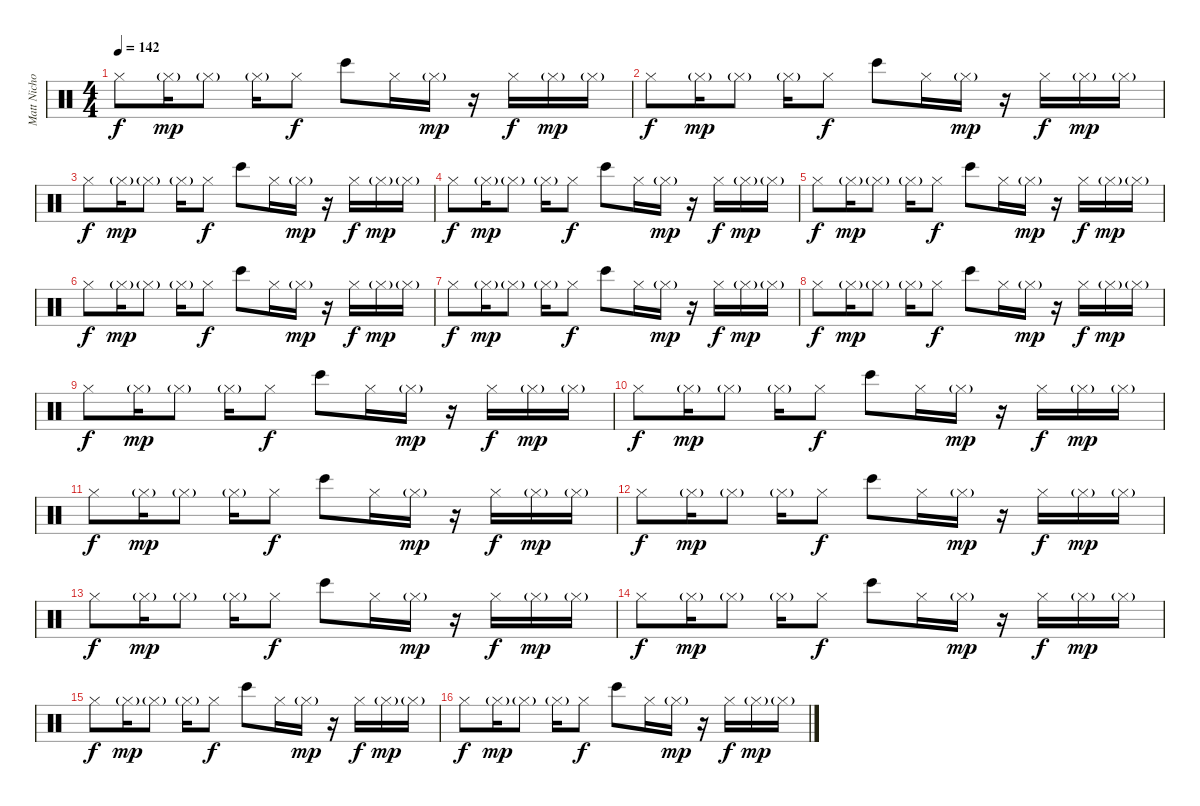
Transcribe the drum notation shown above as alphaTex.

\track ("Matt Nicholls" "Matt Nicho") {instrument percussion}
\staff {score}
\articulation defaults
\ts (4 4)
\tempo 142
\clef neutral
\ks c "Hi-Hat (closed)".8{dy f} "Hi-Hat (closed)"{g}.16{dy mp} "Hi-Hat (closed)"{g}.8 "Hi-Hat (closed)"{g}.16 "Hi-Hat (closed)".8{dy f} "Bongo High (hit)".8 "Hi-Hat (closed)".16 "Hi-Hat (closed)"{g}.16{dy mp}
r.16 "Hi-Hat (closed)".16{dy f} "Hi-Hat (closed)"{g}.16{dy mp} "Hi-Hat (closed)"{g}.16 |
"Hi-Hat (closed)".8{dy f} "Hi-Hat (closed)"{g}.16{dy mp} "Hi-Hat (closed)"{g}.8 "Hi-Hat (closed)"{g}.16 "Hi-Hat (closed)".8{dy f} "Bongo High (hit)".8 "Hi-Hat (closed)".16 "Hi-Hat (closed)"{g}.16{dy mp} r.16 "Hi-Hat (closed)".16{dy f} "Hi-Hat (closed)"{g}.16{dy mp} "Hi-Hat (closed)"{g}.16 |
"Hi-Hat (closed)".8{dy f} "Hi-Hat (closed)"{g}.16{dy mp} "Hi-Hat (closed)"{g}.8 "Hi-Hat (closed)"{g}.16 "Hi-Hat (closed)".8{dy f} "Bongo High (hit)".8 "Hi-Hat (closed)".16 "Hi-Hat (closed)"{g}.16{dy mp} r.16 "Hi-Hat (closed)".16{dy f} "Hi-Hat (closed)"{g}.16{dy mp} "Hi-Hat (closed)"{g}.16 |
"Hi-Hat (closed)".8{dy f} "Hi-Hat (closed)"{g}.16{dy mp} "Hi-Hat (closed)"{g}.8 "Hi-Hat (closed)"{g}.16 "Hi-Hat (closed)".8{dy f} "Bongo High (hit)".8 "Hi-Hat (closed)".16 "Hi-Hat (closed)"{g}.16{dy mp} r.16 "Hi-Hat (closed)".16{dy f} "Hi-Hat (closed)"{g}.16{dy mp} "Hi-Hat (closed)"{g}.16 |
"Hi-Hat (closed)".8{dy f} "Hi-Hat (closed)"{g}.16{dy mp} "Hi-Hat (closed)"{g}.8 "Hi-Hat (closed)"{g}.16 "Hi-Hat (closed)".8{dy f} "Bongo High (hit)".8 "Hi-Hat (closed)".16 "Hi-Hat (closed)"{g}.16{dy mp} r.16 "Hi-Hat (closed)".16{dy f} "Hi-Hat (closed)"{g}.16{dy mp} "Hi-Hat (closed)"{g}.16 |
"Hi-Hat (closed)".8{dy f} "Hi-Hat (closed)"{g}.16{dy mp} "Hi-Hat (closed)"{g}.8 "Hi-Hat (closed)"{g}.16 "Hi-Hat (closed)".8{dy f} "Bongo High (hit)".8 "Hi-Hat (closed)".16 "Hi-Hat (closed)"{g}.16{dy mp} r.16 "Hi-Hat (closed)".16{dy f} "Hi-Hat (closed)"{g}.16{dy mp} "Hi-Hat (closed)"{g}.16 |
"Hi-Hat (closed)".8{dy f} "Hi-Hat (closed)"{g}.16{dy mp} "Hi-Hat (closed)"{g}.8 "Hi-Hat (closed)"{g}.16 "Hi-Hat (closed)".8{dy f} "Bongo High (hit)".8 "Hi-Hat (closed)".16 "Hi-Hat (closed)"{g}.16{dy mp} r.16 "Hi-Hat (closed)".16{dy f} "Hi-Hat (closed)"{g}.16{dy mp} "Hi-Hat (closed)"{g}.16 |
"Hi-Hat (closed)".8{dy f} "Hi-Hat (closed)"{g}.16{dy mp} "Hi-Hat (closed)"{g}.8 "Hi-Hat (closed)"{g}.16 "Hi-Hat (closed)".8{dy f} "Bongo High (hit)".8 "Hi-Hat (closed)".16 "Hi-Hat (closed)"{g}.16{dy mp} r.16 "Hi-Hat (closed)".16{dy f} "Hi-Hat (closed)"{g}.16{dy mp} "Hi-Hat (closed)"{g}.16 |
"Hi-Hat (closed)".8{dy f} "Hi-Hat (closed)"{g}.16{dy mp} "Hi-Hat (closed)"{g}.8 "Hi-Hat (closed)"{g}.16 "Hi-Hat (closed)".8{dy f} "Bongo High (hit)".8 "Hi-Hat (closed)".16 "Hi-Hat (closed)"{g}.16{dy mp} r.16 "Hi-Hat (closed)".16{dy f} "Hi-Hat (closed)"{g}.16{dy mp} "Hi-Hat (closed)"{g}.16 |
"Hi-Hat (closed)".8{dy f} "Hi-Hat (closed)"{g}.16{dy mp} "Hi-Hat (closed)"{g}.8 "Hi-Hat (closed)"{g}.16 "Hi-Hat (closed)".8{dy f} "Bongo High (hit)".8 "Hi-Hat (closed)".16 "Hi-Hat (closed)"{g}.16{dy mp} r.16 "Hi-Hat (closed)".16{dy f} "Hi-Hat (closed)"{g}.16{dy mp} "Hi-Hat (closed)"{g}.16 |
"Hi-Hat (closed)".8{dy f} "Hi-Hat (closed)"{g}.16{dy mp} "Hi-Hat (closed)"{g}.8 "Hi-Hat (closed)"{g}.16 "Hi-Hat (closed)".8{dy f} "Bongo High (hit)".8 "Hi-Hat (closed)".16 "Hi-Hat (closed)"{g}.16{dy mp} r.16 "Hi-Hat (closed)".16{dy f} "Hi-Hat (closed)"{g}.16{dy mp} "Hi-Hat (closed)"{g}.16 |
"Hi-Hat (closed)".8{dy f} "Hi-Hat (closed)"{g}.16{dy mp} "Hi-Hat (closed)"{g}.8 "Hi-Hat (closed)"{g}.16 "Hi-Hat (closed)".8{dy f} "Bongo High (hit)".8 "Hi-Hat (closed)".16 "Hi-Hat (closed)"{g}.16{dy mp} r.16 "Hi-Hat (closed)".16{dy f} "Hi-Hat (closed)"{g}.16{dy mp} "Hi-Hat (closed)"{g}.16 |
"Hi-Hat (closed)".8{dy f} "Hi-Hat (closed)"{g}.16{dy mp} "Hi-Hat (closed)"{g}.8 "Hi-Hat (closed)"{g}.16 "Hi-Hat (closed)".8{dy f} "Bongo High (hit)".8 "Hi-Hat (closed)".16 "Hi-Hat (closed)"{g}.16{dy mp} r.16 "Hi-Hat (closed)".16{dy f} "Hi-Hat (closed)"{g}.16{dy mp} "Hi-Hat (closed)"{g}.16 |
"Hi-Hat (closed)".8{dy f} "Hi-Hat (closed)"{g}.16{dy mp} "Hi-Hat (closed)"{g}.8 "Hi-Hat (closed)"{g}.16 "Hi-Hat (closed)".8{dy f} "Bongo High (hit)".8 "Hi-Hat (closed)".16 "Hi-Hat (closed)"{g}.16{dy mp} r.16 "Hi-Hat (closed)".16{dy f} "Hi-Hat (closed)"{g}.16{dy mp} "Hi-Hat (closed)"{g}.16 |
"Hi-Hat (closed)".8{dy f} "Hi-Hat (closed)"{g}.16{dy mp} "Hi-Hat (closed)"{g}.8 "Hi-Hat (closed)"{g}.16 "Hi-Hat (closed)".8{dy f} "Bongo High (hit)".8 "Hi-Hat (closed)".16 "Hi-Hat (closed)"{g}.16{dy mp} r.16 "Hi-Hat (closed)".16{dy f} "Hi-Hat (closed)"{g}.16{dy mp} "Hi-Hat (closed)"{g}.16 |
"Hi-Hat (closed)".8{dy f} "Hi-Hat (closed)"{g}.16{dy mp} "Hi-Hat (closed)"{g}.8 "Hi-Hat (closed)"{g}.16 "Hi-Hat (closed)".8{dy f} "Bongo High (hit)".8 "Hi-Hat (closed)".16 "Hi-Hat (closed)"{g}.16{dy mp} r.16 "Hi-Hat (closed)".16{dy f} "Hi-Hat (closed)"{g}.16{dy mp} "Hi-Hat (closed)"{g}.16
